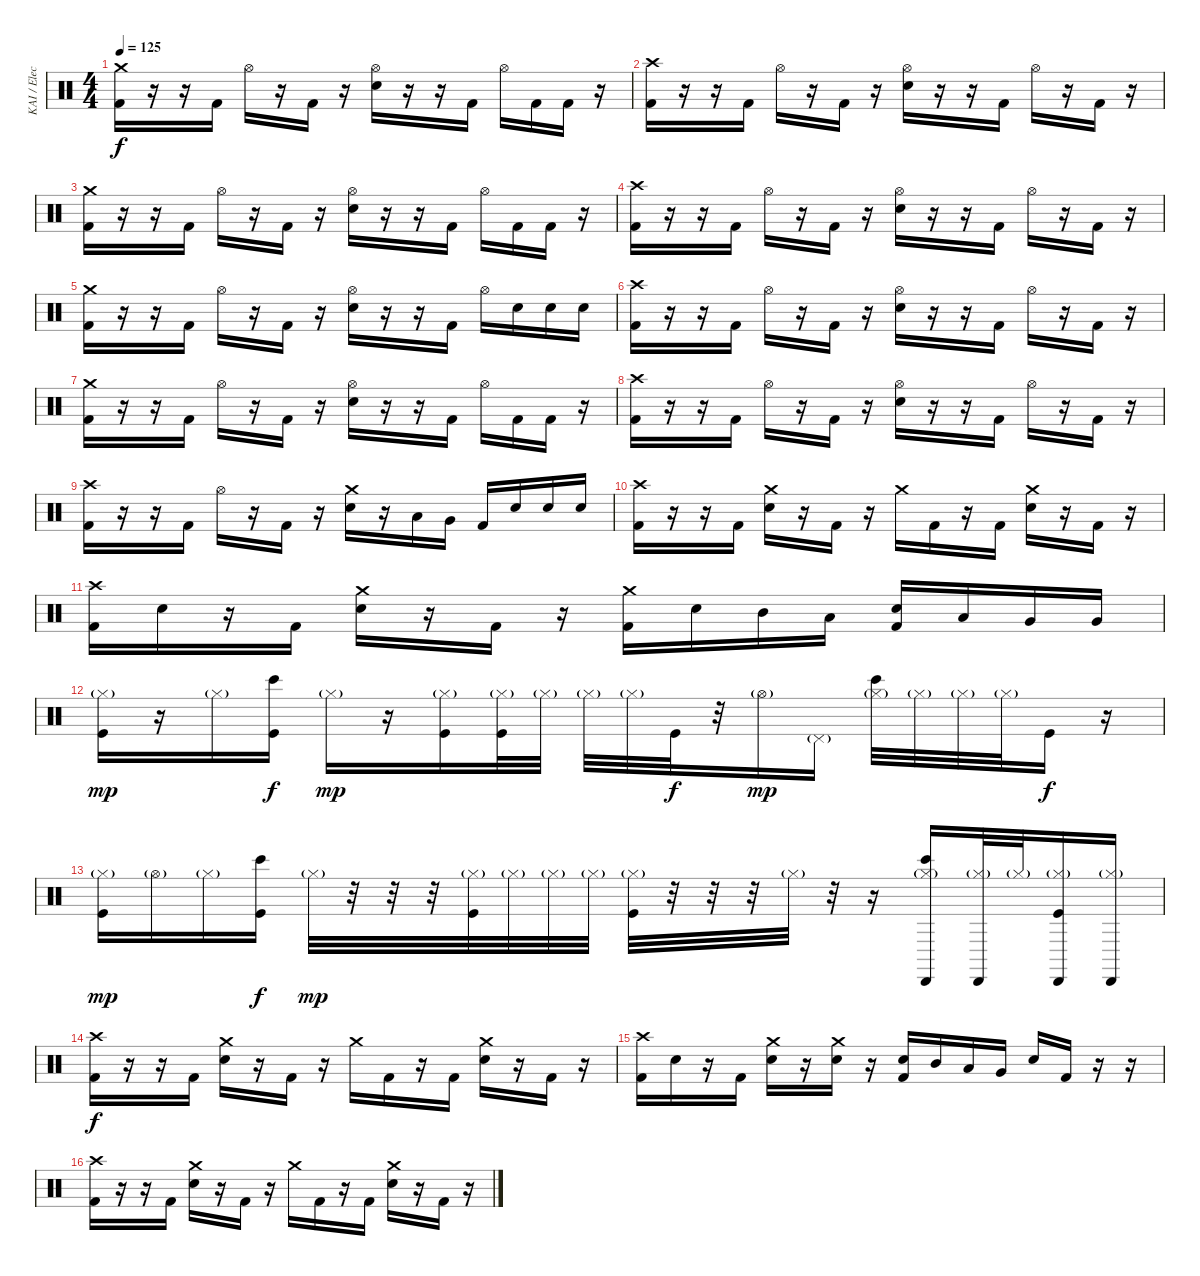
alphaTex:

\track ("KAI / Elect. Drums" "KAI / Elec") {instrument percussion}
\staff {score}
\articulation defaults
\ts (4 4)
\tempo 125
\clef neutral
\ks c
("Crash medium (hit)" "Kick (hit) 2").16{dy f} r.16 r.16 "Kick (hit) 2".16 "Hi-Hat (open)".16 r.16 "Kick (hit) 2".16 r.16 ("Hi-Hat (open)" "Electric Snare (hit)").16 r.16 r.16 "Kick (hit) 2".16 "Hi-Hat (open)".16 "Kick (hit) 2".16 "Kick (hit) 2".16 r.16 |
("Crash high (hit)" "Kick (hit) 2").16 r.16 r.16 "Kick (hit) 2".16 "Hi-Hat (open)".16 r.16 "Kick (hit) 2".16 r.16 ("Hi-Hat (open)" "Electric Snare (hit)").16 r.16 r.16 "Kick (hit) 2".16 "Hi-Hat (open)".16 r.16 "Kick (hit) 2".16 r.16 |
("Crash medium (hit)" "Kick (hit) 2").16 r.16 r.16 "Kick (hit) 2".16 "Hi-Hat (open)".16 r.16 "Kick (hit) 2".16 r.16 ("Hi-Hat (open)" "Electric Snare (hit)").16 r.16 r.16 "Kick (hit) 2".16 "Hi-Hat (open)".16 "Kick (hit) 2".16 "Kick (hit) 2".16 r.16 |
("Crash high (hit)" "Kick (hit) 2").16 r.16 r.16 "Kick (hit) 2".16 "Hi-Hat (open)".16 r.16 "Kick (hit) 2".16 r.16 ("Hi-Hat (open)" "Electric Snare (hit)").16 r.16 r.16 "Kick (hit) 2".16 "Hi-Hat (open)".16 r.16 "Kick (hit) 2".16 r.16 |
("Crash medium (hit)" "Kick (hit) 2").16 r.16 r.16 "Kick (hit) 2".16 "Hi-Hat (open)".16 r.16 "Kick (hit) 2".16 r.16 ("Hi-Hat (open)" "Electric Snare (hit)").16 r.16 r.16 "Kick (hit) 2".16 "Hi-Hat (open)".16 "Electric Snare (hit)".16 "Electric Snare (hit)".16 "Electric Snare (hit)".16 |
("Crash high (hit)" "Kick (hit) 2").16 r.16 r.16 "Kick (hit) 2".16 "Hi-Hat (open)".16 r.16 "Kick (hit) 2".16 r.16 ("Hi-Hat (open)" "Electric Snare (hit)").16 r.16 r.16 "Kick (hit) 2".16 "Hi-Hat (open)".16 r.16 "Kick (hit) 2".16 r.16 |
("Crash medium (hit)" "Kick (hit) 2").16 r.16 r.16 "Kick (hit) 2".16 "Hi-Hat (open)".16 r.16 "Kick (hit) 2".16 r.16 ("Hi-Hat (open)" "Electric Snare (hit)").16 r.16 r.16 "Kick (hit) 2".16 "Hi-Hat (open)".16 "Kick (hit) 2".16 "Kick (hit) 2".16 r.16 |
("Crash high (hit)" "Kick (hit) 2").16 r.16 r.16 "Kick (hit) 2".16 "Hi-Hat (open)".16 r.16 "Kick (hit) 2".16 r.16 ("Hi-Hat (open)" "Electric Snare (hit)").16 r.16 r.16 "Kick (hit) 2".16 "Hi-Hat (open)".16 r.16 "Kick (hit) 2".16 r.16 |
("Crash high (hit)" "Kick (hit) 2").16 r.16 r.16 "Kick (hit) 2".16 "Hi-Hat (open)".16 r.16 "Kick (hit) 2".16 r.16 ("Crash medium (hit)" "Electric Snare (hit)").16 r.16 "Low Tom (hit)".16 "Very Low Tom (hit)".16 "Kick (hit) 2".16 "Electric Snare (hit)".16 "Electric Snare (hit)".16 "Electric Snare (hit)".16 |
("Crash high (hit)" "Kick (hit) 2").16 r.16 r.16 "Kick (hit) 2".16 ("Crash medium (hit)" "Electric Snare (hit)").16 r.16 "Kick (hit) 2".16 r.16 "Crash medium (hit)".16 "Kick (hit) 2".16 r.16 "Kick (hit) 2".16 ("Crash medium (hit)" "Electric Snare (hit)").16 r.16 "Kick (hit) 2".16 r.16 |
("Crash high (hit)" "Kick (hit) 2").16 "Electric Snare (hit)".16 r.16 "Kick (hit) 2".16 ("Crash medium (hit)" "Electric Snare (hit)").16 r.16 "Kick (hit) 2".16 r.16 ("Crash medium (hit)" "Kick (hit) 2").16 "Electric Snare (hit)".16 "Mid Tom (hit)".16 "Low Tom (hit)".16 ("Electric Snare (hit)" "Kick (hit) 2").16 "Low Tom (hit)".16 "Very Low Tom (hit)".16 "Very Low Tom (hit)".16 |
("Hi-Hat (closed)"{g} "Kick (hit)").16{dy mp} r.16 "Hi-Hat (closed)"{g}.16 ("Bongo High (hit)" "Kick (hit)").16{dy f} "Hi-Hat (closed)"{g}.16{dy mp} r.16 ("Hi-Hat (closed)"{g} "Kick (hit)").16 ("Hi-Hat (closed)"{g} "Kick (hit)").32 "Hi-Hat (closed)"{g}.32 "Hi-Hat (closed)"{g}.32 "Hi-Hat (closed)"{g}.32 "Kick (hit)".32{dy f} r.32 "Hi-Hat (open)"{g}.16{dy mp} "Pedal Hi-Hat (hit)"{g}.16 ("Bongo High (hit)" "Hi-Hat (closed)"{g}).32 "Hi-Hat (closed)"{g}.32 "Hi-Hat (closed)"{g}.32 "Hi-Hat (closed)"{g}.32 "Kick (hit)".16{dy f} r.16 |
("Hi-Hat (closed)"{g} "Kick (hit)").16{dy mp} "Hi-Hat (open)"{g}.16 "Hi-Hat (closed)"{g}.16 ("Bongo High (hit)" "Kick (hit)").16{dy f} "Hi-Hat (closed)"{g}.32{dy mp} r.32 r.32 r.32 ("Hi-Hat (closed)"{g} "Kick (hit)").32 "Hi-Hat (closed)"{g}.32 "Hi-Hat (closed)"{g}.32 "Hi-Hat (closed)"{g}.32 ("Hi-Hat (closed)"{g} "Kick (hit)").32 r.32 r.32 r.32 "Hi-Hat (closed)"{g}.32 r.32 r.16 ("Bongo High (hit)" "Hi-Hat (closed)"{g} "Cabasa (hit)").16 ("Hi-Hat (closed)"{g} "Cabasa (hit)").32 "Hi-Hat (closed)"{g}.32 ("Hi-Hat (closed)"{g} "Cabasa (hit)" "Kick (hit)").16 ("Hi-Hat (closed)"{g} "Cabasa (hit)").16 |
("Crash high (hit)" "Kick (hit) 2").16{dy f} r.16 r.16 "Kick (hit) 2".16 ("Crash medium (hit)" "Electric Snare (hit)").16 r.16 "Kick (hit) 2".16 r.16 "Crash medium (hit)".16 "Kick (hit) 2".16 r.16 "Kick (hit) 2".16 ("Crash medium (hit)" "Electric Snare (hit)").16 r.16 "Kick (hit) 2".16 r.16 |
("Crash high (hit)" "Kick (hit) 2").16 "Electric Snare (hit)".16 r.16 "Kick (hit) 2".16 ("Crash medium (hit)" "Electric Snare (hit)").16 r.16 ("Crash medium (hit)" "Electric Snare (hit)").16 r.16 ("Electric Snare (hit)" "Kick (hit) 2").16 "Mid Tom (hit)".16 "Low Tom (hit)".16 "Very Low Tom (hit)".16 "Electric Snare (hit)".16 "Kick (hit) 2".16 r.16 r.16 |
("Crash high (hit)" "Kick (hit) 2").16 r.16 r.16 "Kick (hit) 2".16 ("Crash medium (hit)" "Electric Snare (hit)").16 r.16 "Kick (hit) 2".16 r.16 "Crash medium (hit)".16 "Kick (hit) 2".16 r.16 "Kick (hit) 2".16 ("Crash medium (hit)" "Electric Snare (hit)").16 r.16 "Kick (hit) 2".16 r.16
